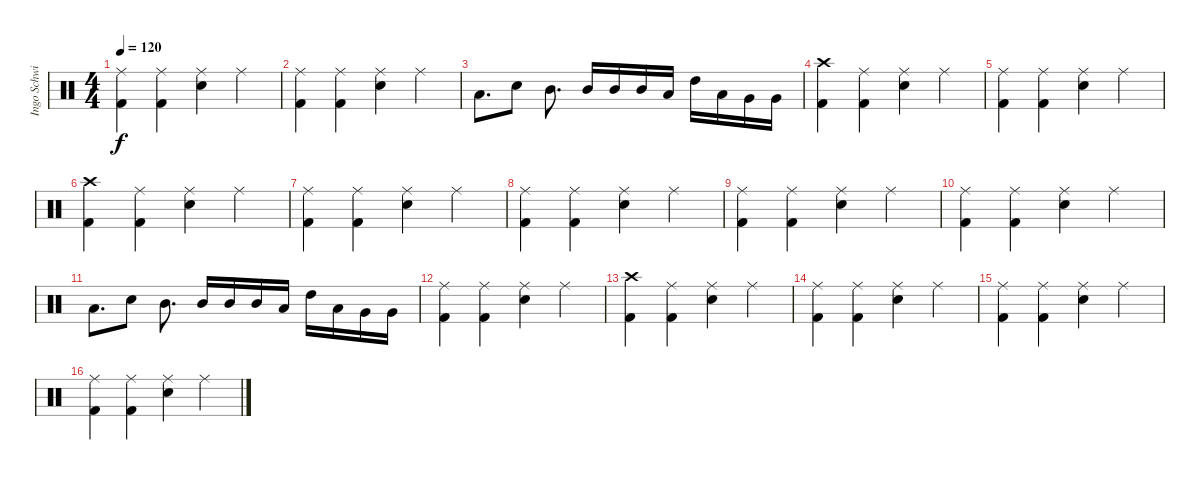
\track ("Ingo Schwichtenberg" "Ingo Schwi") {instrument percussion}
\staff {score}
\articulation defaults
\ts (4 4)
\tempo 120
\clef neutral
\ks c
("Ride (middle)" "Kick (hit) 2").4{dy f} ("Ride (middle)" "Kick (hit) 2").4 ("Ride (middle)" "Snare (hit) 2").4 "Ride (middle)".4 |
("Ride (middle)" "Kick (hit) 2").4 ("Ride (middle)" "Kick (hit) 2").4 ("Ride (middle)" "Snare (hit) 2").4 "Ride (middle)".4 |
"Low Tom (hit)".8{d} "Snare (hit) 2".8 "Mid Tom (hit)".8{d} "Mid Tom (hit)".16 "Mid Tom (hit)".16 "Mid Tom (hit)".16 "Low Tom (hit)".16 "High Tom (hit)".16 "Low Tom (hit)".16 "Very Low Tom (hit)".16 "Very Low Tom (hit)".16 |
("Crash high (hit)" "Kick (hit) 2").4 ("Ride (middle)" "Kick (hit) 2").4 ("Ride (middle)" "Snare (hit) 2").4 "Ride (middle)".4 |
("Ride (middle)" "Kick (hit) 2").4 ("Ride (middle)" "Kick (hit) 2").4 ("Ride (middle)" "Snare (hit) 2").4 "Ride (middle)".4 |
("Crash high (hit)" "Kick (hit) 2").4 ("Ride (middle)" "Kick (hit) 2").4 ("Ride (middle)" "Snare (hit) 2").4 "Ride (middle)".4 |
("Ride (middle)" "Kick (hit) 2").4 ("Ride (middle)" "Kick (hit) 2").4 ("Ride (middle)" "Snare (hit) 2").4 "Ride (middle)".4 |
("Ride (middle)" "Kick (hit) 2").4 ("Ride (middle)" "Kick (hit) 2").4 ("Ride (middle)" "Snare (hit) 2").4 "Ride (middle)".4 |
("Ride (middle)" "Kick (hit) 2").4 ("Ride (middle)" "Kick (hit) 2").4 ("Ride (middle)" "Snare (hit) 2").4 "Ride (middle)".4 |
("Ride (middle)" "Kick (hit) 2").4 ("Ride (middle)" "Kick (hit) 2").4 ("Ride (middle)" "Snare (hit) 2").4 "Ride (middle)".4 |
"Low Tom (hit)".8{d} "Snare (hit) 2".8 "Mid Tom (hit)".8{d} "Mid Tom (hit)".16 "Mid Tom (hit)".16 "Mid Tom (hit)".16 "Low Tom (hit)".16 "High Tom (hit)".16 "Low Tom (hit)".16 "Very Low Tom (hit)".16 "Very Low Tom (hit)".16 |
("Ride (middle)" "Kick (hit) 2").4 ("Ride (middle)" "Kick (hit) 2").4 ("Ride (middle)" "Snare (hit) 2").4 "Ride (middle)".4 |
("Crash high (hit)" "Kick (hit) 2").4 ("Ride (middle)" "Kick (hit) 2").4 ("Ride (middle)" "Snare (hit) 2").4 "Ride (middle)".4 |
("Ride (middle)" "Kick (hit) 2").4 ("Ride (middle)" "Kick (hit) 2").4 ("Ride (middle)" "Snare (hit) 2").4 "Ride (middle)".4 |
("Ride (middle)" "Kick (hit) 2").4 ("Ride (middle)" "Kick (hit) 2").4 ("Ride (middle)" "Snare (hit) 2").4 "Ride (middle)".4 |
("Ride (middle)" "Kick (hit) 2").4 ("Ride (middle)" "Kick (hit) 2").4 ("Ride (middle)" "Snare (hit) 2").4 "Ride (middle)".4
